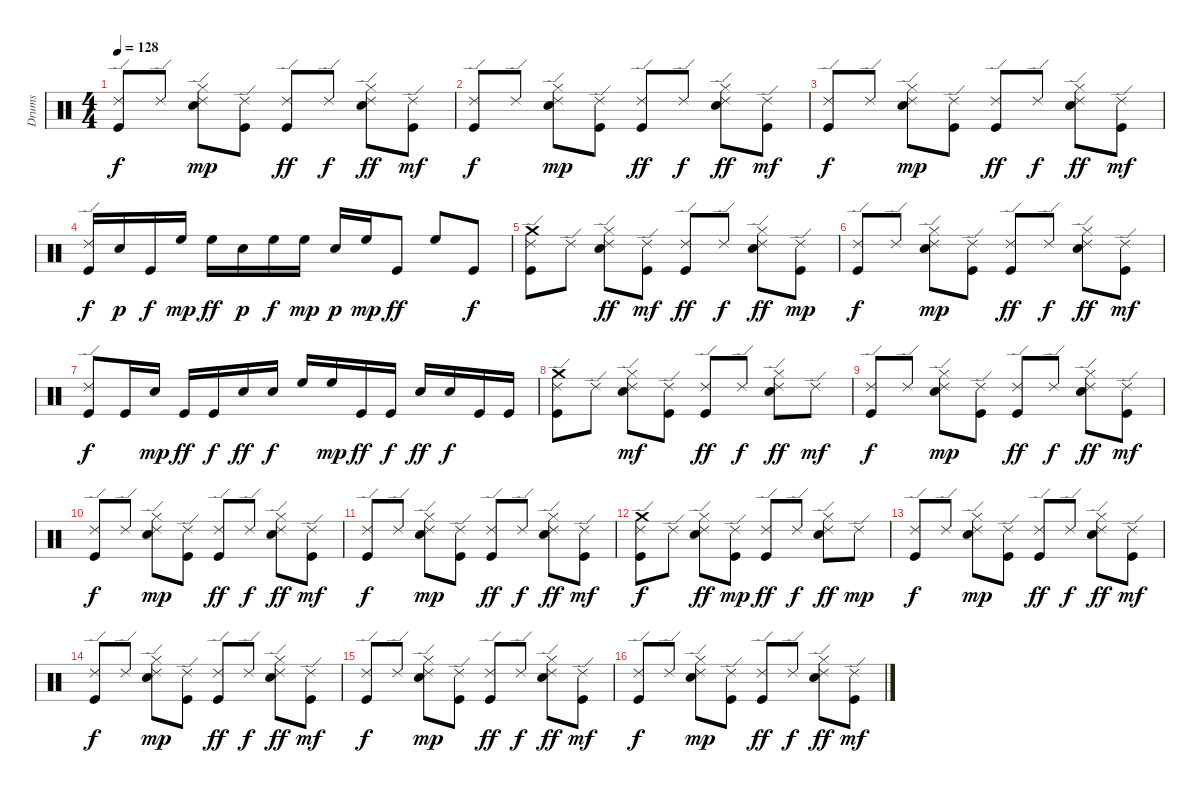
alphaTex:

\track ("Drums" "Drums") {instrument percussion}
\staff {score}
\articulation defaults
\ts (4 4)
\tempo 128
\clef neutral
\ks c
("Ride (edge) 2" "Kick (hit)").8{dy f} "Ride (edge) 2".8 ("Electric Snare (hit)" "Hi-Hat (closed)" "Ride (edge) 2").8{dy mp} ("Ride (edge) 2" "Kick (hit)").8 ("Ride (edge) 2" "Kick (hit)").8{dy ff} "Ride (edge) 2".8{dy f} ("Electric Snare (hit)" "Hi-Hat (closed)" "Ride (edge) 2").8{dy ff} ("Ride (edge) 2" "Kick (hit)").8{dy mf} |
("Ride (edge) 2" "Kick (hit)").8{dy f} "Ride (edge) 2".8 ("Electric Snare (hit)" "Hi-Hat (closed)" "Ride (edge) 2").8{dy mp} ("Ride (edge) 2" "Kick (hit)").8 ("Ride (edge) 2" "Kick (hit)").8{dy ff} "Ride (edge) 2".8{dy f} ("Electric Snare (hit)" "Hi-Hat (closed)" "Ride (edge) 2").8{dy ff} ("Ride (edge) 2" "Kick (hit)").8{dy mf} |
("Ride (edge) 2" "Kick (hit)").8{dy f} "Ride (edge) 2".8 ("Electric Snare (hit)" "Hi-Hat (closed)" "Ride (edge) 2").8{dy mp} ("Ride (edge) 2" "Kick (hit)").8 ("Ride (edge) 2" "Kick (hit)").8{dy ff} "Ride (edge) 2".8{dy f} ("Electric Snare (hit)" "Hi-Hat (closed)" "Ride (edge) 2").8{dy ff} ("Ride (edge) 2" "Kick (hit)").8{dy mf} |
("Ride (edge) 2" "Kick (hit)").16{dy f} "Electric Snare (hit)".16{dy p} "Kick (hit)".16{dy f} "High Floor Tom (hit)".16{dy mp} "High Floor Tom (hit)".16{dy ff} "Electric Snare (hit)".16{dy p} "High Floor Tom (hit)".16{dy f} "High Floor Tom (hit)".16{dy mp} "Electric Snare (hit)".16{dy p} "High Floor Tom (hit)".16{dy mp} "Kick (hit)".8{dy ff} "High Floor Tom (hit)".8 "Kick (hit)".8{dy f} |
("Crash medium (hit)" "Ride (edge) 2" "Kick (hit)").8 "Ride (edge) 2".8 ("Electric Snare (hit)" "Hi-Hat (closed)" "Ride (edge) 2").8{dy ff} ("Ride (edge) 2" "Kick (hit)").8{dy mf} ("Ride (edge) 2" "Kick (hit)").8{dy ff} "Ride (edge) 2".8{dy f} ("Electric Snare (hit)" "Hi-Hat (closed)" "Ride (edge) 2").8{dy ff} ("Ride (edge) 2" "Kick (hit)").8{dy mp} |
("Ride (edge) 2" "Kick (hit)").8{dy f} "Ride (edge) 2".8 ("Electric Snare (hit)" "Hi-Hat (closed)" "Ride (edge) 2").8{dy mp} ("Ride (edge) 2" "Kick (hit)").8 ("Ride (edge) 2" "Kick (hit)").8{dy ff} "Ride (edge) 2".8{dy f} ("Electric Snare (hit)" "Hi-Hat (closed)" "Ride (edge) 2").8{dy ff} ("Ride (edge) 2" "Kick (hit)").8{dy mf} |
("Ride (edge) 2" "Kick (hit)").8{dy f} "Kick (hit)".16 "Electric Snare (hit)".16{dy mp} "Kick (hit)".16{dy ff} "Kick (hit)".16{dy f} "Electric Snare (hit)".16{dy ff} "Electric Snare (hit)".16{dy f} "High Floor Tom (hit)".16 "High Floor Tom (hit)".16{dy mp} "Kick (hit)".16{dy ff} "Kick (hit)".16{dy f} "Electric Snare (hit)".16{dy ff} "Electric Snare (hit)".16{dy f} "Kick (hit)".16 "Kick (hit)".16 |
("Crash medium (hit)" "Ride (edge) 2" "Kick (hit)").8 "Ride (edge) 2".8 ("Electric Snare (hit)" "Hi-Hat (closed)" "Ride (edge) 2").8{dy mf} ("Ride (edge) 2" "Kick (hit)").8 ("Ride (edge) 2" "Kick (hit)").8{dy ff} "Ride (edge) 2".8{dy f} ("Electric Snare (hit)" "Hi-Hat (closed)" "Ride (edge) 2").8{dy ff} "Ride (edge) 2".8{dy mf} |
("Ride (edge) 2" "Kick (hit)").8{dy f} "Ride (edge) 2".8 ("Electric Snare (hit)" "Hi-Hat (closed)" "Ride (edge) 2").8{dy mp} ("Ride (edge) 2" "Kick (hit)").8 ("Ride (edge) 2" "Kick (hit)").8{dy ff} "Ride (edge) 2".8{dy f} ("Electric Snare (hit)" "Hi-Hat (closed)" "Ride (edge) 2").8{dy ff} ("Ride (edge) 2" "Kick (hit)").8{dy mf} |
("Ride (edge) 2" "Kick (hit)").8{dy f} "Ride (edge) 2".8 ("Electric Snare (hit)" "Hi-Hat (closed)" "Ride (edge) 2").8{dy mp} ("Ride (edge) 2" "Kick (hit)").8 ("Ride (edge) 2" "Kick (hit)").8{dy ff} "Ride (edge) 2".8{dy f} ("Electric Snare (hit)" "Hi-Hat (closed)" "Ride (edge) 2").8{dy ff} ("Ride (edge) 2" "Kick (hit)").8{dy mf} |
("Ride (edge) 2" "Kick (hit)").8{dy f} "Ride (edge) 2".8 ("Electric Snare (hit)" "Hi-Hat (closed)" "Ride (edge) 2").8{dy mp} ("Ride (edge) 2" "Kick (hit)").8 ("Ride (edge) 2" "Kick (hit)").8{dy ff} "Ride (edge) 2".8{dy f} ("Electric Snare (hit)" "Hi-Hat (closed)" "Ride (edge) 2").8{dy ff} ("Ride (edge) 2" "Kick (hit)").8{dy mf} |
("Crash medium (hit)" "Ride (edge) 2" "Kick (hit)").8{dy f} "Ride (edge) 2".8 ("Electric Snare (hit)" "Hi-Hat (closed)" "Ride (edge) 2").8{dy ff} ("Ride (edge) 2" "Kick (hit)").8{dy mp} ("Ride (edge) 2" "Kick (hit)").8{dy ff} "Ride (edge) 2".8{dy f} ("Electric Snare (hit)" "Hi-Hat (closed)" "Ride (edge) 2").8{dy ff} "Ride (edge) 2".8{dy mp} |
("Ride (edge) 2" "Kick (hit)").8{dy f} "Ride (edge) 2".8 ("Electric Snare (hit)" "Hi-Hat (closed)" "Ride (edge) 2").8{dy mp} ("Ride (edge) 2" "Kick (hit)").8 ("Ride (edge) 2" "Kick (hit)").8{dy ff} "Ride (edge) 2".8{dy f} ("Electric Snare (hit)" "Hi-Hat (closed)" "Ride (edge) 2").8{dy ff} ("Ride (edge) 2" "Kick (hit)").8{dy mf} |
("Ride (edge) 2" "Kick (hit)").8{dy f} "Ride (edge) 2".8 ("Electric Snare (hit)" "Hi-Hat (closed)" "Ride (edge) 2").8{dy mp} ("Ride (edge) 2" "Kick (hit)").8 ("Ride (edge) 2" "Kick (hit)").8{dy ff} "Ride (edge) 2".8{dy f} ("Electric Snare (hit)" "Hi-Hat (closed)" "Ride (edge) 2").8{dy ff} ("Ride (edge) 2" "Kick (hit)").8{dy mf} |
("Ride (edge) 2" "Kick (hit)").8{dy f} "Ride (edge) 2".8 ("Electric Snare (hit)" "Hi-Hat (closed)" "Ride (edge) 2").8{dy mp} ("Ride (edge) 2" "Kick (hit)").8 ("Ride (edge) 2" "Kick (hit)").8{dy ff} "Ride (edge) 2".8{dy f} ("Electric Snare (hit)" "Hi-Hat (closed)" "Ride (edge) 2").8{dy ff} ("Ride (edge) 2" "Kick (hit)").8{dy mf} |
("Ride (edge) 2" "Kick (hit)").8{dy f} "Ride (edge) 2".8 ("Electric Snare (hit)" "Hi-Hat (closed)" "Ride (edge) 2").8{dy mp} ("Ride (edge) 2" "Kick (hit)").8 ("Ride (edge) 2" "Kick (hit)").8{dy ff} "Ride (edge) 2".8{dy f} ("Electric Snare (hit)" "Hi-Hat (closed)" "Ride (edge) 2").8{dy ff} ("Ride (edge) 2" "Kick (hit)").8{dy mf}
